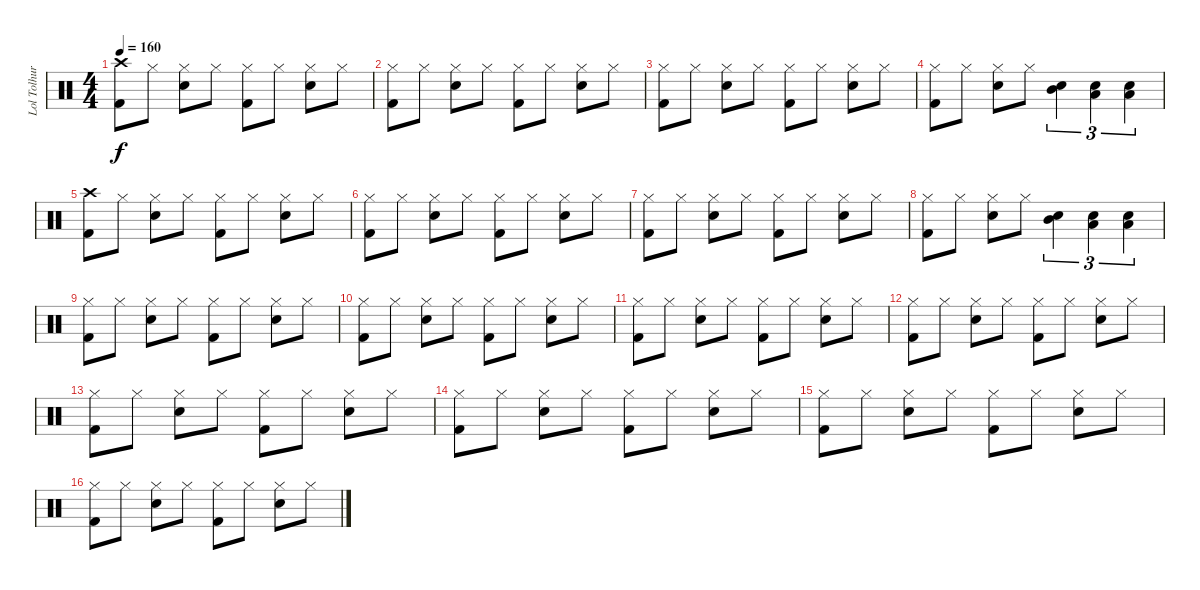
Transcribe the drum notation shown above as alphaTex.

\track ("Lol Tolhurst drums" "Lol Tolhur") {instrument percussion}
\staff {score}
\articulation defaults
\ts (4 4)
\tempo 160
\clef neutral
\ks c
("Crash high (hit)" "Kick (hit) 2").8{dy f} "Hi-Hat (closed)".8 ("Hi-Hat (closed)" "Snare (hit) 2").8 "Hi-Hat (closed)".8 ("Hi-Hat (closed)" "Kick (hit) 2").8 "Hi-Hat (closed)".8 ("Hi-Hat (closed)" "Snare (hit) 2").8 "Hi-Hat (closed)".8 |
("Hi-Hat (closed)" "Kick (hit) 2").8 "Hi-Hat (closed)".8 ("Hi-Hat (closed)" "Snare (hit) 2").8 "Hi-Hat (closed)".8 ("Hi-Hat (closed)" "Kick (hit) 2").8 "Hi-Hat (closed)".8 ("Hi-Hat (closed)" "Snare (hit) 2").8 "Hi-Hat (closed)".8 |
("Hi-Hat (closed)" "Kick (hit) 2").8 "Hi-Hat (closed)".8 ("Hi-Hat (closed)" "Snare (hit) 2").8 "Hi-Hat (closed)".8 ("Hi-Hat (closed)" "Kick (hit) 2").8 "Hi-Hat (closed)".8 ("Hi-Hat (closed)" "Snare (hit) 2").8 "Hi-Hat (closed)".8 |
("Hi-Hat (closed)" "Kick (hit) 2").8 "Hi-Hat (closed)".8 ("Hi-Hat (closed)" "Snare (hit) 2").8 "Hi-Hat (closed)".8 ("Mid Tom (hit)" "Snare (hit) 2").4{tu (3 2)} ("Low Tom (hit)" "Snare (hit) 2").4{tu (3 2)} ("Low Floor Tom (hit)" "Snare (hit) 2").4{tu (3 2)} |
\section ("" "")
("Crash high (hit)" "Kick (hit) 2").8 "Hi-Hat (closed)".8 ("Hi-Hat (closed)" "Snare (hit) 2").8 "Hi-Hat (closed)".8 ("Hi-Hat (closed)" "Kick (hit) 2").8 "Hi-Hat (closed)".8 ("Hi-Hat (closed)" "Snare (hit) 2").8 "Hi-Hat (closed)".8 |
("Hi-Hat (closed)" "Kick (hit) 2").8 "Hi-Hat (closed)".8 ("Hi-Hat (closed)" "Snare (hit) 2").8 "Hi-Hat (closed)".8 ("Hi-Hat (closed)" "Kick (hit) 2").8 "Hi-Hat (closed)".8 ("Hi-Hat (closed)" "Snare (hit) 2").8 "Hi-Hat (closed)".8 |
("Hi-Hat (closed)" "Kick (hit) 2").8 "Hi-Hat (closed)".8 ("Hi-Hat (closed)" "Snare (hit) 2").8 "Hi-Hat (closed)".8 ("Hi-Hat (closed)" "Kick (hit) 2").8 "Hi-Hat (closed)".8 ("Hi-Hat (closed)" "Snare (hit) 2").8 "Hi-Hat (closed)".8 |
("Hi-Hat (closed)" "Kick (hit) 2").8 "Hi-Hat (closed)".8 ("Hi-Hat (closed)" "Snare (hit) 2").8 "Hi-Hat (closed)".8 ("Mid Tom (hit)" "Snare (hit) 2").4{tu (3 2)} ("Low Tom (hit)" "Snare (hit) 2").4{tu (3 2)} ("Low Floor Tom (hit)" "Snare (hit) 2").4{tu (3 2)} |
\section ("" "")
("Hi-Hat (closed)" "Kick (hit) 2").8 "Hi-Hat (closed)".8 ("Hi-Hat (closed)" "Snare (hit) 2").8 "Hi-Hat (closed)".8 ("Hi-Hat (closed)" "Kick (hit) 2").8 "Hi-Hat (closed)".8 ("Hi-Hat (closed)" "Snare (hit) 2").8 "Hi-Hat (closed)".8 |
("Hi-Hat (closed)" "Kick (hit) 2").8 "Hi-Hat (closed)".8 ("Hi-Hat (closed)" "Snare (hit) 2").8 "Hi-Hat (closed)".8 ("Hi-Hat (closed)" "Kick (hit) 2").8 "Hi-Hat (closed)".8 ("Hi-Hat (closed)" "Snare (hit) 2").8 "Hi-Hat (closed)".8 |
("Hi-Hat (closed)" "Kick (hit) 2").8 "Hi-Hat (closed)".8 ("Hi-Hat (closed)" "Snare (hit) 2").8 "Hi-Hat (closed)".8 ("Hi-Hat (closed)" "Kick (hit) 2").8 "Hi-Hat (closed)".8 ("Hi-Hat (closed)" "Snare (hit) 2").8 "Hi-Hat (closed)".8 |
("Hi-Hat (closed)" "Kick (hit) 2").8 "Hi-Hat (closed)".8 ("Hi-Hat (closed)" "Snare (hit) 2").8 "Hi-Hat (closed)".8 ("Hi-Hat (closed)" "Kick (hit) 2").8 "Hi-Hat (closed)".8 ("Hi-Hat (closed)" "Snare (hit) 2").8 "Hi-Hat (closed)".8 |
("Hi-Hat (closed)" "Kick (hit) 2").8 "Hi-Hat (closed)".8 ("Hi-Hat (closed)" "Snare (hit) 2").8 "Hi-Hat (closed)".8 ("Hi-Hat (closed)" "Kick (hit) 2").8 "Hi-Hat (closed)".8 ("Hi-Hat (closed)" "Snare (hit) 2").8 "Hi-Hat (closed)".8 |
("Hi-Hat (closed)" "Kick (hit) 2").8 "Hi-Hat (closed)".8 ("Hi-Hat (closed)" "Snare (hit) 2").8 "Hi-Hat (closed)".8 ("Hi-Hat (closed)" "Kick (hit) 2").8 "Hi-Hat (closed)".8 ("Hi-Hat (closed)" "Snare (hit) 2").8 "Hi-Hat (closed)".8 |
("Hi-Hat (closed)" "Kick (hit) 2").8 "Hi-Hat (closed)".8 ("Hi-Hat (closed)" "Snare (hit) 2").8 "Hi-Hat (closed)".8 ("Hi-Hat (closed)" "Kick (hit) 2").8 "Hi-Hat (closed)".8 ("Hi-Hat (closed)" "Snare (hit) 2").8 "Hi-Hat (closed)".8 |
("Hi-Hat (closed)" "Kick (hit) 2").8 "Hi-Hat (closed)".8 ("Hi-Hat (closed)" "Snare (hit) 2").8 "Hi-Hat (closed)".8 ("Hi-Hat (closed)" "Kick (hit) 2").8 "Hi-Hat (closed)".8 ("Hi-Hat (closed)" "Snare (hit) 2").8 "Hi-Hat (closed)".8
